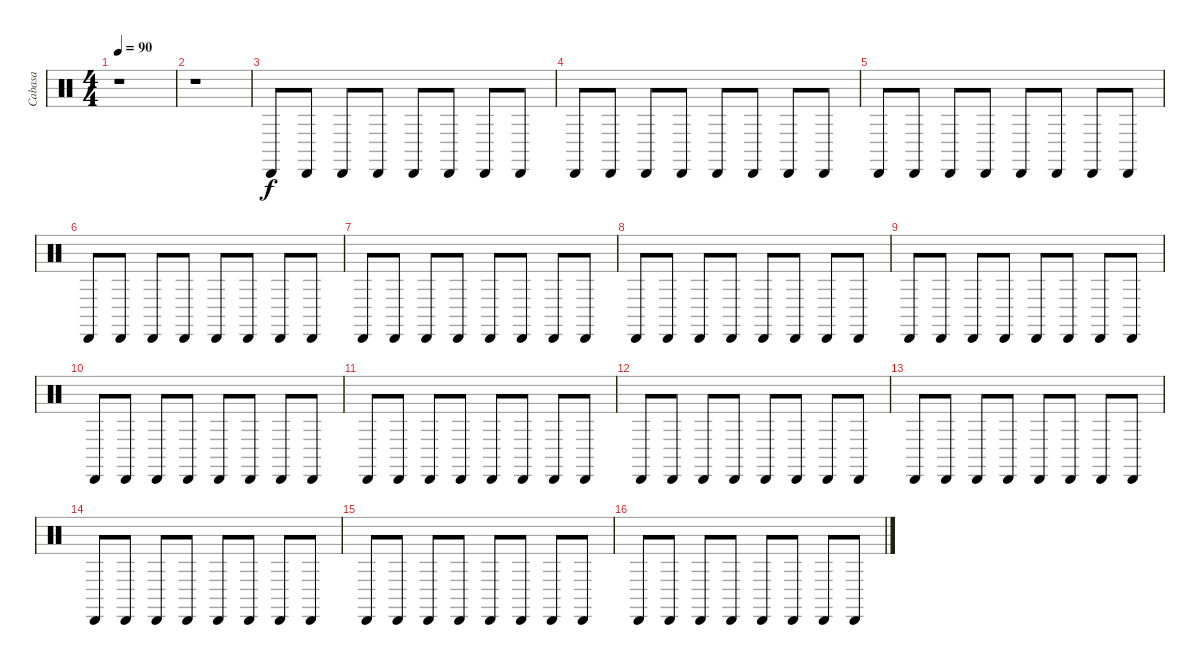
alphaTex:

\track ("Cabasa" "Cabasa") {instrument percussion}
\staff {score}
\articulation defaults
\ts (4 4)
\tempo 90
\clef neutral
\ks c
r.1{dy f} |
r.1 |
"Cabasa (hit)".8 "Cabasa (hit)".8 "Cabasa (hit)".8 "Cabasa (hit)".8 "Cabasa (hit)".8 "Cabasa (hit)".8 "Cabasa (hit)".8 "Cabasa (hit)".8 |
"Cabasa (hit)".8 "Cabasa (hit)".8 "Cabasa (hit)".8 "Cabasa (hit)".8 "Cabasa (hit)".8 "Cabasa (hit)".8 "Cabasa (hit)".8 "Cabasa (hit)".8 |
"Cabasa (hit)".8 "Cabasa (hit)".8 "Cabasa (hit)".8 "Cabasa (hit)".8 "Cabasa (hit)".8 "Cabasa (hit)".8 "Cabasa (hit)".8 "Cabasa (hit)".8 |
"Cabasa (hit)".8 "Cabasa (hit)".8 "Cabasa (hit)".8 "Cabasa (hit)".8 "Cabasa (hit)".8 "Cabasa (hit)".8 "Cabasa (hit)".8 "Cabasa (hit)".8 |
"Cabasa (hit)".8 "Cabasa (hit)".8 "Cabasa (hit)".8 "Cabasa (hit)".8 "Cabasa (hit)".8 "Cabasa (hit)".8 "Cabasa (hit)".8 "Cabasa (hit)".8 |
"Cabasa (hit)".8 "Cabasa (hit)".8 "Cabasa (hit)".8 "Cabasa (hit)".8 "Cabasa (hit)".8 "Cabasa (hit)".8 "Cabasa (hit)".8 "Cabasa (hit)".8 |
"Cabasa (hit)".8 "Cabasa (hit)".8 "Cabasa (hit)".8 "Cabasa (hit)".8 "Cabasa (hit)".8 "Cabasa (hit)".8 "Cabasa (hit)".8 "Cabasa (hit)".8 |
"Cabasa (hit)".8 "Cabasa (hit)".8 "Cabasa (hit)".8 "Cabasa (hit)".8 "Cabasa (hit)".8 "Cabasa (hit)".8 "Cabasa (hit)".8 "Cabasa (hit)".8 |
"Cabasa (hit)".8 "Cabasa (hit)".8 "Cabasa (hit)".8 "Cabasa (hit)".8 "Cabasa (hit)".8 "Cabasa (hit)".8 "Cabasa (hit)".8 "Cabasa (hit)".8 |
"Cabasa (hit)".8 "Cabasa (hit)".8 "Cabasa (hit)".8 "Cabasa (hit)".8 "Cabasa (hit)".8 "Cabasa (hit)".8 "Cabasa (hit)".8 "Cabasa (hit)".8 |
"Cabasa (hit)".8 "Cabasa (hit)".8 "Cabasa (hit)".8 "Cabasa (hit)".8 "Cabasa (hit)".8 "Cabasa (hit)".8 "Cabasa (hit)".8 "Cabasa (hit)".8 |
"Cabasa (hit)".8 "Cabasa (hit)".8 "Cabasa (hit)".8 "Cabasa (hit)".8 "Cabasa (hit)".8 "Cabasa (hit)".8 "Cabasa (hit)".8 "Cabasa (hit)".8 |
"Cabasa (hit)".8 "Cabasa (hit)".8 "Cabasa (hit)".8 "Cabasa (hit)".8 "Cabasa (hit)".8 "Cabasa (hit)".8 "Cabasa (hit)".8 "Cabasa (hit)".8 |
"Cabasa (hit)".8 "Cabasa (hit)".8 "Cabasa (hit)".8 "Cabasa (hit)".8 "Cabasa (hit)".8 "Cabasa (hit)".8 "Cabasa (hit)".8 "Cabasa (hit)".8
